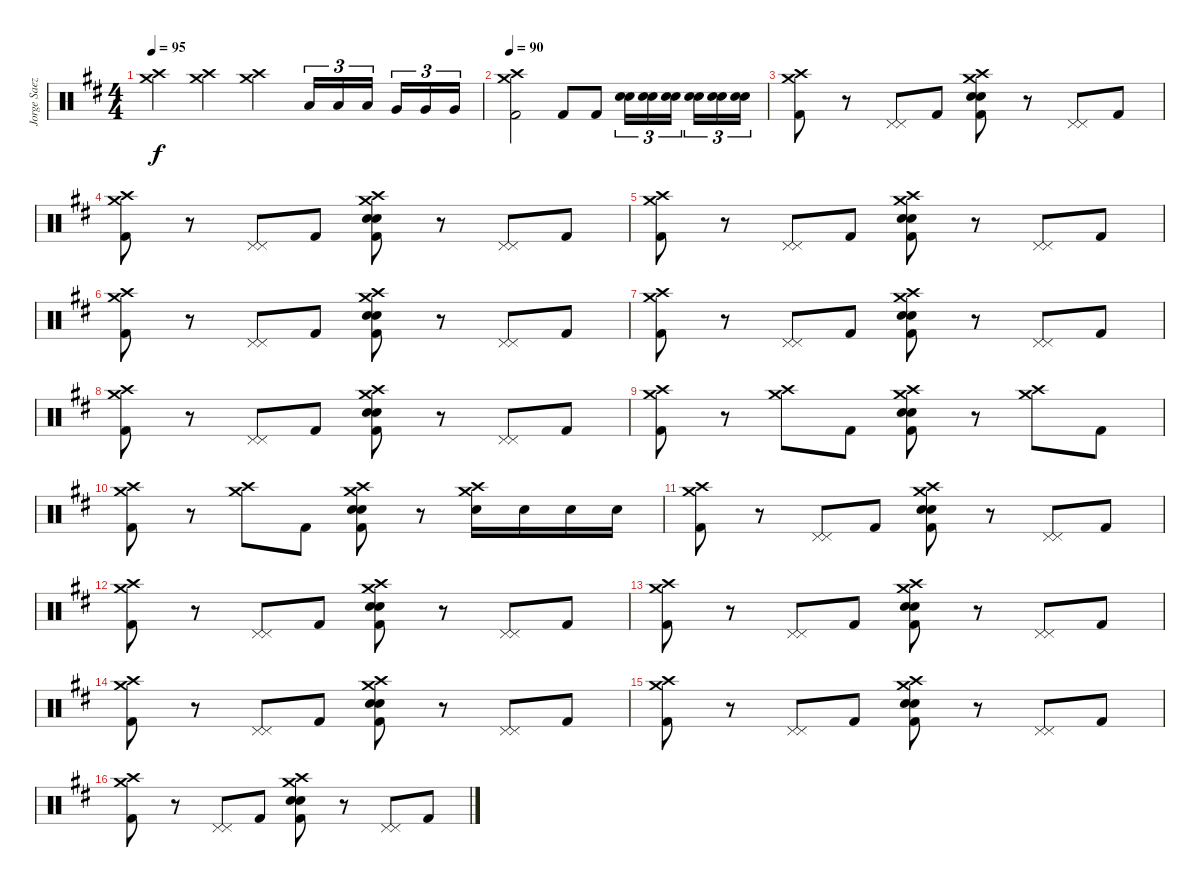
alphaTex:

\track ("Jorge Saez - Drums" "Jorge Saez") {instrument percussion}
\staff {score}
\articulation defaults
\ts (4 4)
\tempo 95
\clef neutral
\ks bminor
("Crash medium (hit)" "Crash high (hit)").4{dy f} ("Crash medium (hit)" "Crash high (hit)").4 ("Crash medium (hit)" "Crash high (hit)").4 "Low Tom (hit)".16{tu (3 2)} "Low Tom (hit)".16{tu (3 2)} "Low Tom (hit)".16{tu (3 2)} "Very Low Tom (hit)".16{tu (3 2)} "Very Low Tom (hit)".16{tu (3 2)} "Very Low Tom (hit)".16{tu (3 2)} |
\tempo 90
("Crash medium (hit)" "Crash high (hit)" "Kick (hit) 2").2 "Kick (hit) 2".8 "Kick (hit) 2".8 ("Snare (hit) 2" "Electric Snare (hit)").16{tu (3 2)} ("Snare (hit) 2" "Electric Snare (hit)").16{tu (3 2)} ("Snare (hit) 2" "Electric Snare (hit)").16{tu (3 2)} ("Snare (hit) 2" "Electric Snare (hit)").16{tu (3 2)} ("Snare (hit) 2" "Electric Snare (hit)").16{tu (3 2)} ("Snare (hit) 2" "Electric Snare (hit)").16{tu (3 2)} |
("Crash medium (hit)" "Crash high (hit)" "Kick (hit) 2").8 r.8 ("Pedal Hi-Hat (hit)" "Pedal Hi-Hat (hit)").8 "Kick (hit) 2".8 ("Kick (hit) 2" "Crash medium (hit)" "Crash high (hit)" "Snare (hit) 2" "Electric Snare (hit)").8 r.8 ("Pedal Hi-Hat (hit)" "Pedal Hi-Hat (hit)").8 "Kick (hit) 2".8 |
("Crash medium (hit)" "Crash high (hit)" "Kick (hit) 2").8 r.8 ("Pedal Hi-Hat (hit)" "Pedal Hi-Hat (hit)").8 "Kick (hit) 2".8 ("Kick (hit) 2" "Crash medium (hit)" "Crash high (hit)" "Snare (hit) 2" "Electric Snare (hit)").8 r.8 ("Pedal Hi-Hat (hit)" "Pedal Hi-Hat (hit)").8 "Kick (hit) 2".8 |
("Crash medium (hit)" "Crash high (hit)" "Kick (hit) 2").8 r.8 ("Pedal Hi-Hat (hit)" "Pedal Hi-Hat (hit)").8 "Kick (hit) 2".8 ("Kick (hit) 2" "Crash medium (hit)" "Crash high (hit)" "Snare (hit) 2" "Electric Snare (hit)").8 r.8 ("Pedal Hi-Hat (hit)" "Pedal Hi-Hat (hit)").8 "Kick (hit) 2".8 |
("Crash medium (hit)" "Crash high (hit)" "Kick (hit) 2").8 r.8 ("Pedal Hi-Hat (hit)" "Pedal Hi-Hat (hit)").8 "Kick (hit) 2".8 ("Kick (hit) 2" "Crash medium (hit)" "Crash high (hit)" "Snare (hit) 2" "Electric Snare (hit)").8 r.8 ("Pedal Hi-Hat (hit)" "Pedal Hi-Hat (hit)").8 "Kick (hit) 2".8 |
("Crash medium (hit)" "Crash high (hit)" "Kick (hit) 2").8 r.8 ("Pedal Hi-Hat (hit)" "Pedal Hi-Hat (hit)").8 "Kick (hit) 2".8 ("Kick (hit) 2" "Crash medium (hit)" "Crash high (hit)" "Snare (hit) 2" "Electric Snare (hit)").8 r.8 ("Pedal Hi-Hat (hit)" "Pedal Hi-Hat (hit)").8 "Kick (hit) 2".8 |
("Crash medium (hit)" "Crash high (hit)" "Kick (hit) 2").8 r.8 ("Pedal Hi-Hat (hit)" "Pedal Hi-Hat (hit)").8 "Kick (hit) 2".8 ("Kick (hit) 2" "Crash medium (hit)" "Crash high (hit)" "Snare (hit) 2" "Electric Snare (hit)").8 r.8 ("Pedal Hi-Hat (hit)" "Pedal Hi-Hat (hit)").8 "Kick (hit) 2".8 |
("Crash medium (hit)" "Crash high (hit)" "Kick (hit) 2").8 r.8 ("Crash medium (hit)" "Crash high (hit)").8 "Kick (hit) 2".8 ("Kick (hit) 2" "Crash medium (hit)" "Crash high (hit)" "Snare (hit) 2" "Electric Snare (hit)").8 r.8 ("Crash medium (hit)" "Crash high (hit)").8 "Kick (hit) 2".8 |
("Crash medium (hit)" "Crash high (hit)" "Kick (hit) 2").8 r.8 ("Crash medium (hit)" "Crash high (hit)").8 "Kick (hit) 2".8 ("Kick (hit) 2" "Crash medium (hit)" "Crash high (hit)" "Snare (hit) 2" "Electric Snare (hit)").8 r.8 ("Crash medium (hit)" "Crash high (hit)" "Snare (hit) 2").16 "Snare (hit) 2".16 "Snare (hit) 2".16 "Snare (hit) 2".16 |
("Crash medium (hit)" "Crash high (hit)" "Kick (hit) 2").8 r.8 ("Pedal Hi-Hat (hit)" "Pedal Hi-Hat (hit)").8 "Kick (hit) 2".8 ("Kick (hit) 2" "Crash medium (hit)" "Crash high (hit)" "Snare (hit) 2" "Electric Snare (hit)").8 r.8 ("Pedal Hi-Hat (hit)" "Pedal Hi-Hat (hit)").8 "Kick (hit) 2".8 |
("Crash medium (hit)" "Crash high (hit)" "Kick (hit) 2").8 r.8 ("Pedal Hi-Hat (hit)" "Pedal Hi-Hat (hit)").8 "Kick (hit) 2".8 ("Kick (hit) 2" "Crash medium (hit)" "Crash high (hit)" "Snare (hit) 2" "Electric Snare (hit)").8 r.8 ("Pedal Hi-Hat (hit)" "Pedal Hi-Hat (hit)").8 "Kick (hit) 2".8 |
("Crash medium (hit)" "Crash high (hit)" "Kick (hit) 2").8 r.8 ("Pedal Hi-Hat (hit)" "Pedal Hi-Hat (hit)").8 "Kick (hit) 2".8 ("Kick (hit) 2" "Crash medium (hit)" "Crash high (hit)" "Snare (hit) 2" "Electric Snare (hit)").8 r.8 ("Pedal Hi-Hat (hit)" "Pedal Hi-Hat (hit)").8 "Kick (hit) 2".8 |
("Crash medium (hit)" "Crash high (hit)" "Kick (hit) 2").8{volume 0} r.8 ("Pedal Hi-Hat (hit)" "Pedal Hi-Hat (hit)").8 "Kick (hit) 2".8 ("Kick (hit) 2" "Crash medium (hit)" "Crash high (hit)" "Snare (hit) 2" "Electric Snare (hit)").8 r.8 ("Pedal Hi-Hat (hit)" "Pedal Hi-Hat (hit)").8 "Kick (hit) 2".8 |
("Crash medium (hit)" "Crash high (hit)" "Kick (hit) 2").8 r.8 ("Pedal Hi-Hat (hit)" "Pedal Hi-Hat (hit)").8 "Kick (hit) 2".8 ("Kick (hit) 2" "Crash medium (hit)" "Crash high (hit)" "Snare (hit) 2" "Electric Snare (hit)").8 r.8 ("Pedal Hi-Hat (hit)" "Pedal Hi-Hat (hit)").8 "Kick (hit) 2".8 |
("Crash medium (hit)" "Crash high (hit)" "Kick (hit) 2").8 r.8 ("Pedal Hi-Hat (hit)" "Pedal Hi-Hat (hit)").8 "Kick (hit) 2".8 ("Kick (hit) 2" "Crash medium (hit)" "Crash high (hit)" "Snare (hit) 2" "Electric Snare (hit)").8 r.8 ("Pedal Hi-Hat (hit)" "Pedal Hi-Hat (hit)").8 "Kick (hit) 2".8
